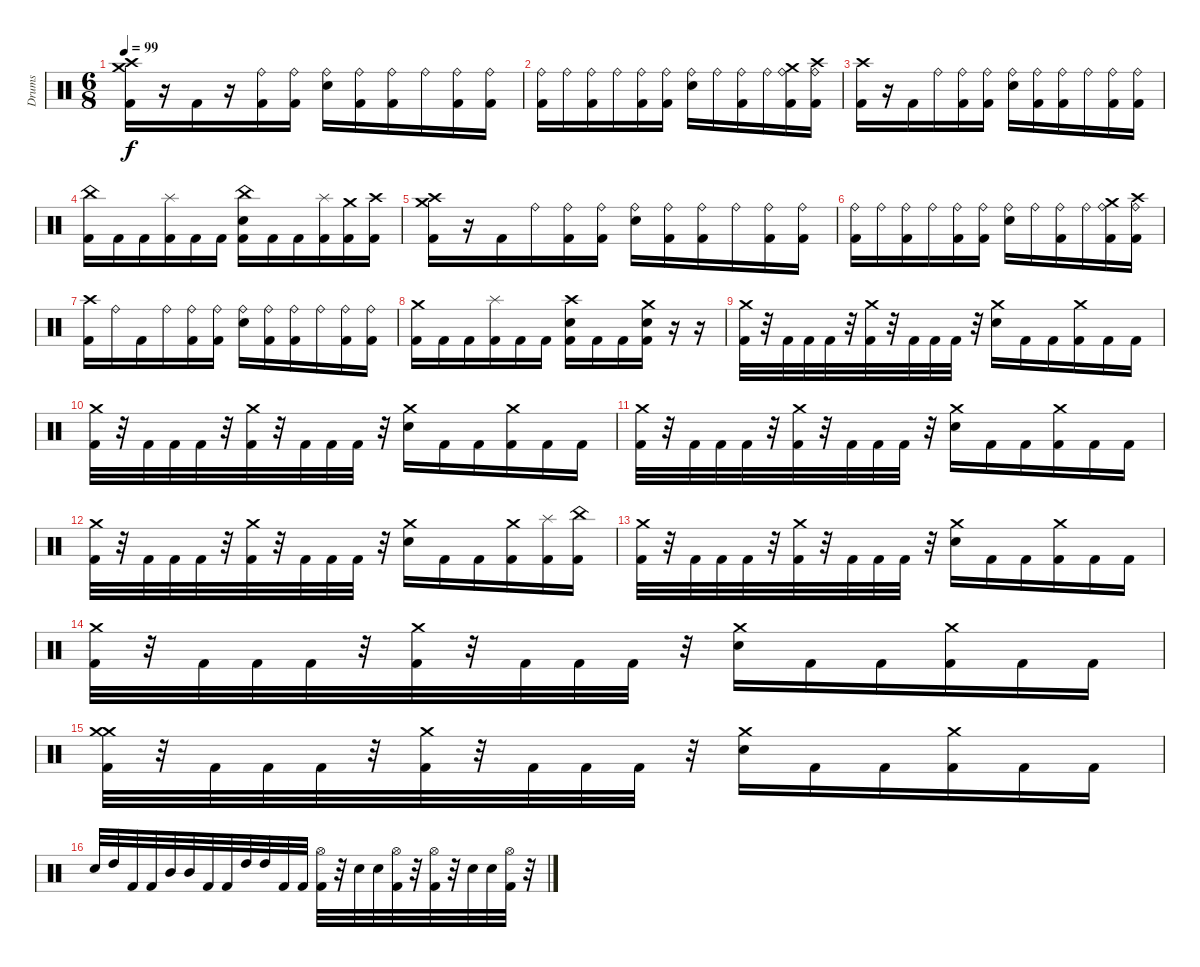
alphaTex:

\track ("Drums" "Drums") {instrument percussion}
\staff {score}
\articulation defaults
\ts (6 8)
\tempo 99
\clef neutral
\ks c
("Crash medium (hit)" "Crash high (hit)" "Kick (hit) 2").16{dy f} r.16 "Kick (hit) 2".16 r.16 ("Ride (bell)" "Kick (hit) 2").16 ("Ride (bell)" "Kick (hit) 2").16 ("Ride (bell)" "Electric Snare (hit)").16 ("Ride (bell)" "Kick (hit) 2").16 ("Ride (bell)" "Kick (hit) 2").16 "Ride (bell)".16 ("Ride (bell)" "Kick (hit) 2").16 ("Ride (bell)" "Kick (hit) 2").16 |
("Ride (bell)" "Kick (hit) 2").16 "Ride (bell)".16 ("Ride (bell)" "Kick (hit) 2").16 "Ride (bell)".16 ("Ride (bell)" "Kick (hit) 2").16 ("Ride (bell)" "Kick (hit) 2").16 ("Ride (bell)" "Electric Snare (hit)").16 "Ride (bell)".16 ("Ride (bell)" "Kick (hit) 2").16 "Ride (bell)".16 ("Ride (bell)" "Crash medium (hit)" "Kick (hit) 2").16 ("Ride (bell)" "Crash high (hit)" "Kick (hit) 2").16 |
("Crash high (hit)" "Kick (hit) 2").16 r.16 "Kick (hit) 2".16 "Ride (bell)".16 ("Ride (bell)" "Kick (hit) 2").16 ("Ride (bell)" "Kick (hit) 2").16 ("Ride (bell)" "Electric Snare (hit)").16 ("Ride (bell)" "Kick (hit) 2").16 ("Ride (bell)" "Kick (hit) 2").16 "Ride (bell)".16 ("Ride (bell)" "Kick (hit) 2").16 ("Ride (bell)" "Kick (hit) 2").16 |
("China (hit)" "Kick (hit) 2").16 "Kick (hit) 2".16 "Kick (hit) 2".16 ("Splash (hit)" "Kick (hit) 2").16 "Kick (hit) 2".16 "Kick (hit) 2".16 ("China (hit)" "Electric Snare (hit)" "Kick (hit) 2").16 "Kick (hit) 2".16 "Kick (hit) 2".16 ("Splash (hit)" "Kick (hit) 2").16 ("Crash medium (hit)" "Kick (hit) 2").16 ("Crash high (hit)" "Kick (hit) 2").16 |
("Crash medium (hit)" "Crash high (hit)" "Kick (hit) 2").16 r.16 "Kick (hit) 2".16 "Ride (bell)".16 ("Ride (bell)" "Kick (hit) 2").16 ("Ride (bell)" "Kick (hit) 2").16 ("Ride (bell)" "Electric Snare (hit)").16 ("Ride (bell)" "Kick (hit) 2").16 ("Ride (bell)" "Kick (hit) 2").16 "Ride (bell)".16 ("Ride (bell)" "Kick (hit) 2").16 ("Ride (bell)" "Kick (hit) 2").16 |
("Ride (bell)" "Kick (hit) 2").16 "Ride (bell)".16 ("Ride (bell)" "Kick (hit) 2").16 "Ride (bell)".16 ("Ride (bell)" "Kick (hit) 2").16 ("Ride (bell)" "Kick (hit) 2").16 ("Ride (bell)" "Electric Snare (hit)").16 "Ride (bell)".16 ("Ride (bell)" "Kick (hit) 2").16 "Ride (bell)".16 ("Ride (bell)" "Crash medium (hit)" "Kick (hit) 2").16 ("Ride (bell)" "Crash high (hit)" "Kick (hit) 2").16 |
("Crash high (hit)" "Kick (hit) 2").16 "Ride (bell)".16 "Kick (hit) 2".16 "Ride (bell)".16 ("Ride (bell)" "Kick (hit) 2").16 ("Ride (bell)" "Kick (hit) 2").16 ("Ride (bell)" "Electric Snare (hit)").16 ("Ride (bell)" "Kick (hit) 2").16 ("Ride (bell)" "Kick (hit) 2").16 "Ride (bell)".16 ("Ride (bell)" "Kick (hit) 2").16 ("Ride (bell)" "Kick (hit) 2").16 |
("Crash medium (hit)" "Kick (hit) 2").16 "Kick (hit) 2".16 "Kick (hit) 2".16 ("Splash (hit)" "Kick (hit) 2").16 "Kick (hit) 2".16 "Kick (hit) 2".16 ("Crash high (hit)" "Electric Snare (hit)" "Kick (hit) 2").16 "Kick (hit) 2".16 "Kick (hit) 2".16 ("Crash medium (hit)" "Electric Snare (hit)" "Kick (hit) 2").16 r.16 r.16 |
("Crash medium (hit)" "Kick (hit) 2").32 r.32 "Kick (hit) 2".32 "Kick (hit) 2".32 "Kick (hit) 2".32 r.32 ("Crash medium (hit)" "Kick (hit) 2").32 r.32 "Kick (hit) 2".32 "Kick (hit) 2".32 "Kick (hit) 2".32 r.32 ("Crash medium (hit)" "Electric Snare (hit)").16 "Kick (hit) 2".16 "Kick (hit) 2".16 ("Crash medium (hit)" "Kick (hit) 2").16 "Kick (hit) 2".16 "Kick (hit) 2".16 |
("Crash medium (hit)" "Kick (hit) 2").32 r.32 "Kick (hit) 2".32 "Kick (hit) 2".32 "Kick (hit) 2".32 r.32 ("Crash medium (hit)" "Kick (hit) 2").32 r.32 "Kick (hit) 2".32 "Kick (hit) 2".32 "Kick (hit) 2".32 r.32 ("Crash medium (hit)" "Electric Snare (hit)").16 "Kick (hit) 2".16 "Kick (hit) 2".16 ("Crash medium (hit)" "Kick (hit) 2").16 "Kick (hit) 2".16 "Kick (hit) 2".16 |
("Crash medium (hit)" "Kick (hit) 2").32 r.32 "Kick (hit) 2".32 "Kick (hit) 2".32 "Kick (hit) 2".32 r.32 ("Crash medium (hit)" "Kick (hit) 2").32 r.32 "Kick (hit) 2".32 "Kick (hit) 2".32 "Kick (hit) 2".32 r.32 ("Crash medium (hit)" "Electric Snare (hit)").16 "Kick (hit) 2".16 "Kick (hit) 2".16 ("Crash medium (hit)" "Kick (hit) 2").16 "Kick (hit) 2".16 "Kick (hit) 2".16 |
("Crash medium (hit)" "Kick (hit) 2").32 r.32 "Kick (hit) 2".32 "Kick (hit) 2".32 "Kick (hit) 2".32 r.32 ("Crash medium (hit)" "Kick (hit) 2").32 r.32 "Kick (hit) 2".32 "Kick (hit) 2".32 "Kick (hit) 2".32 r.32 ("Crash medium (hit)" "Electric Snare (hit)").16 "Kick (hit) 2".16 "Kick (hit) 2".16 ("Crash medium (hit)" "Kick (hit) 2").16 ("Splash (hit)" "Kick (hit) 2").16 ("China (hit)" "Kick (hit) 2").16 |
("Crash medium (hit)" "Kick (hit) 2").32 r.32 "Kick (hit) 2".32 "Kick (hit) 2".32 "Kick (hit) 2".32 r.32 ("Crash medium (hit)" "Kick (hit) 2").32 r.32 "Kick (hit) 2".32 "Kick (hit) 2".32 "Kick (hit) 2".32 r.32 ("Crash medium (hit)" "Electric Snare (hit)").16 "Kick (hit) 2".16 "Kick (hit) 2".16 ("Crash medium (hit)" "Kick (hit) 2").16 "Kick (hit) 2".16 "Kick (hit) 2".16 |
("Crash medium (hit)" "Kick (hit) 2").32 r.32 "Kick (hit) 2".32 "Kick (hit) 2".32 "Kick (hit) 2".32 r.32 ("Crash medium (hit)" "Kick (hit) 2").32 r.32 "Kick (hit) 2".32 "Kick (hit) 2".32 "Kick (hit) 2".32 r.32 ("Crash medium (hit)" "Electric Snare (hit)").16 "Kick (hit) 2".16 "Kick (hit) 2".16 ("Crash medium (hit)" "Kick (hit) 2").16 "Kick (hit) 2".16 "Kick (hit) 2".16 |
("Crash medium (hit)" "Crash medium (hit)" "Kick (hit) 2").32 r.32 "Kick (hit) 2".32 "Kick (hit) 2".32 "Kick (hit) 2".32 r.32 ("Crash medium (hit)" "Kick (hit) 2").32 r.32 "Kick (hit) 2".32 "Kick (hit) 2".32 "Kick (hit) 2".32 r.32 ("Crash medium (hit)" "Electric Snare (hit)").16 "Kick (hit) 2".16 "Kick (hit) 2".16 ("Crash medium (hit)" "Kick (hit) 2").16 "Kick (hit) 2".16 "Kick (hit) 2".16 |
"Electric Snare (hit)".32 "High Tom (hit)".32 "Kick (hit) 2".32 "Kick (hit) 2".32 "Mid Tom (hit)".32 "Mid Tom (hit)".32 "Kick (hit) 2".32 "Kick (hit) 2".32 "High Tom (hit)".32 "High Tom (hit)".32 "Kick (hit) 2".32 "Kick (hit) 2".32 ("Hi-Hat (open)" "Kick (hit) 2").32 r.32 "Electric Snare (hit)".32 "Electric Snare (hit)".32 ("Hi-Hat (open)" "Kick (hit) 2").32 r.32 ("Hi-Hat (open)" "Kick (hit) 2").32 r.32 "Electric Snare (hit)".32 "Electric Snare (hit)".32 ("Hi-Hat (open)" "Kick (hit) 2").32 r.32
